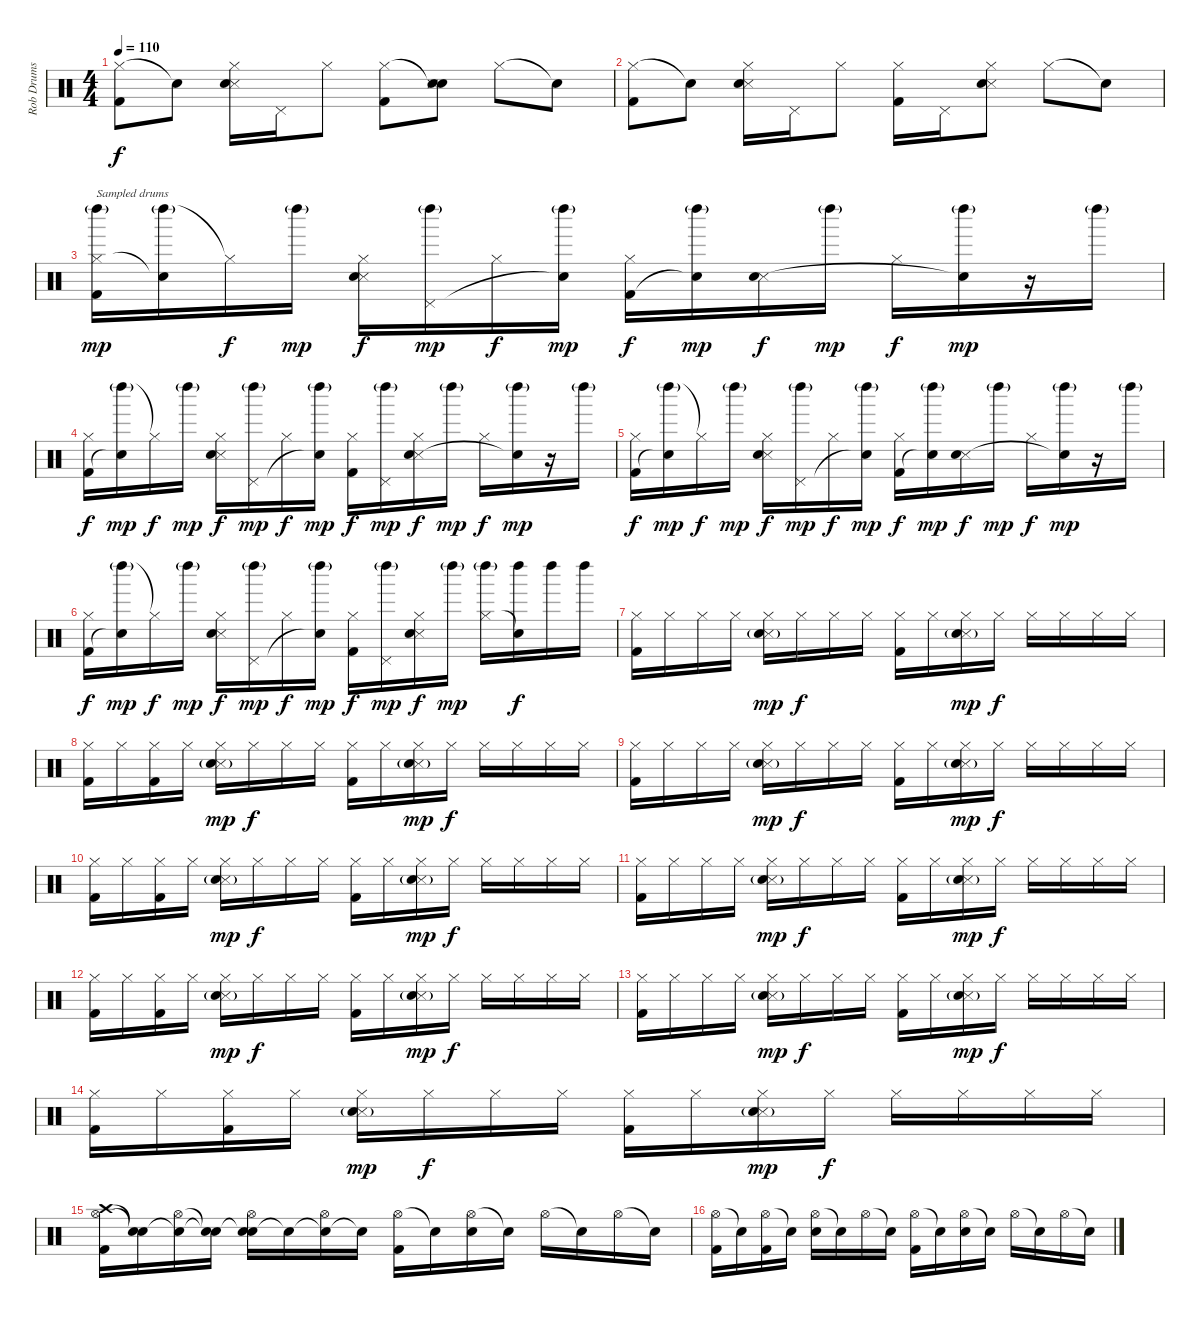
\track ("Rob Drums" "Rob Drums") {instrument percussion}
\staff {score}
\articulation defaults
\ts (4 4)
\tempo 110
\clef neutral
\ks c
("Hi-Hat (closed)" "Kick (hit) 2").8{dy f} "Snare (hit)"{t}.8 ("Hi-Hat (closed)" "Snare (side stick) 3" "Hand Clap (hit)").16 "Pedal Hi-Hat (hit)".16 "Hi-Hat (closed)".8 ("Hi-Hat (closed)" "Kick (hit) 2").8 ("Snare (hit)"{t} "Snare (side stick) 3" "Hand Clap (hit)").8 "Hi-Hat (closed)".8 "Snare (hit)"{t}.8 |
("Hi-Hat (closed)" "Kick (hit) 2").8 "Snare (hit)"{t}.8 ("Hi-Hat (closed)" "Snare (side stick) 3" "Hand Clap (hit)").16 "Pedal Hi-Hat (hit)".16 "Hi-Hat (closed)".8 ("Hi-Hat (closed)" "Kick (hit) 2").16 "Pedal Hi-Hat (hit)".16 ("Hi-Hat (closed)" "Snare (side stick) 3" "Hand Clap (hit)").8 "Hi-Hat (closed)".8 "Snare (hit)"{t}.8 |
("Left Maraca (hit)"{g} "Hi-Hat (closed)" "Kick (hit) 2").16{txt "Sampled drums" dy mp} ("Left Maraca (hit)"{g} "Snare (hit)"{t}).16 "Hi-Hat (closed)"{t}.16{dy f} "Left Maraca (hit)"{g}.16{dy mp} ("Hi-Hat (closed)" "Snare (side stick) 3" "Hand Clap (hit)").16{dy f} ("Left Maraca (hit)"{g} "Pedal Hi-Hat (hit)").16{dy mp} "Hi-Hat (closed)".16{dy f} ("Left Maraca (hit)"{g} "Snare (hit)"{t}).16{dy mp} ("Hi-Hat (closed)" "Kick (hit) 2").16{dy f} ("Left Maraca (hit)"{g} "Snare (hit)"{t}).16{dy mp} ("Snare (side stick) 3" "Hand Clap (hit)").16{dy f} "Left Maraca (hit)"{g}.16{dy mp} "Hi-Hat (closed)".16{dy f} ("Left Maraca (hit)"{g} "Snare (hit)"{t}).16{dy mp} r.16 "Left Maraca (hit)"{g}.16 |
("Hi-Hat (closed)" "Kick (hit) 2").16{dy f} ("Left Maraca (hit)"{g} "Snare (hit)"{t}).16{dy mp} "Hi-Hat (closed)"{t}.16{dy f} "Left Maraca (hit)"{g}.16{dy mp} ("Hi-Hat (closed)" "Snare (side stick) 3" "Hand Clap (hit)").16{dy f} ("Left Maraca (hit)"{g} "Pedal Hi-Hat (hit)").16{dy mp} "Hi-Hat (closed)".16{dy f} ("Left Maraca (hit)"{g} "Snare (hit)"{t}).16{dy mp} ("Hi-Hat (closed)" "Kick (hit) 2").16{dy f} ("Left Maraca (hit)"{g} "Pedal Hi-Hat (hit)").16{dy mp} ("Hi-Hat (closed)" "Snare (side stick) 3" "Hand Clap (hit)").16{dy f} "Left Maraca (hit)"{g}.16{dy mp} "Hi-Hat (closed)".16{dy f} ("Left Maraca (hit)"{g} "Snare (hit)"{t}).16{dy mp} r.16 "Left Maraca (hit)"{g}.16 |
("Hi-Hat (closed)" "Kick (hit) 2").16{dy f} ("Left Maraca (hit)"{g} "Snare (hit)"{t}).16{dy mp} "Hi-Hat (closed)"{t}.16{dy f} "Left Maraca (hit)"{g}.16{dy mp} ("Hi-Hat (closed)" "Snare (side stick) 3" "Hand Clap (hit)").16{dy f} ("Left Maraca (hit)"{g} "Pedal Hi-Hat (hit)").16{dy mp} "Hi-Hat (closed)".16{dy f} ("Left Maraca (hit)"{g} "Snare (hit)"{t}).16{dy mp} ("Hi-Hat (closed)" "Kick (hit) 2").16{dy f} ("Left Maraca (hit)"{g} "Snare (hit)"{t}).16{dy mp} ("Snare (side stick) 3" "Hand Clap (hit)").16{dy f} "Left Maraca (hit)"{g}.16{dy mp} "Hi-Hat (closed)".16{dy f} ("Left Maraca (hit)"{g} "Snare (hit)"{t}).16{dy mp} r.16 "Left Maraca (hit)"{g}.16 |
("Hi-Hat (closed)" "Kick (hit) 2").16{dy f} ("Left Maraca (hit)"{g} "Snare (hit)"{t}).16{dy mp} "Hi-Hat (closed)"{t}.16{dy f} "Left Maraca (hit)"{g}.16{dy mp} ("Hi-Hat (closed)" "Snare (side stick) 3" "Hand Clap (hit)").16{dy f} ("Left Maraca (hit)"{g} "Pedal Hi-Hat (hit)").16{dy mp} "Hi-Hat (closed)".16{dy f} ("Left Maraca (hit)"{g} "Snare (hit)"{t}).16{dy mp} ("Hi-Hat (closed)" "Kick (hit) 2").16{dy f} ("Left Maraca (hit)"{g} "Pedal Hi-Hat (hit)").16{dy mp} ("Hi-Hat (closed)" "Snare (side stick) 3" "Hand Clap (hit)").16{dy f} "Left Maraca (hit)"{g}.16{dy mp} ("Left Maraca (hit)"{g} "Hi-Hat (closed)").16 ("Left Maraca (hit)" "Snare (hit)"{t}).16{dy f} "Left Maraca (hit)".16 "Left Maraca (hit)".16 |
("Hi-Hat (closed)" "Kick (hit) 2").16 "Hi-Hat (closed)".16 "Hi-Hat (closed)".16 "Hi-Hat (closed)".16 ("Hi-Hat (closed)" "Snare (side stick) 3" "Electric Snare (hit)"{g}).16{dy mp} "Hi-Hat (closed)".16{dy f} "Hi-Hat (closed)".16 "Hi-Hat (closed)".16 ("Hi-Hat (closed)" "Kick (hit) 2").16 "Hi-Hat (closed)".16 ("Hi-Hat (closed)" "Snare (side stick) 3" "Electric Snare (hit)"{g}).16{dy mp} "Hi-Hat (closed)".16{dy f} "Hi-Hat (closed)".16 "Hi-Hat (closed)".16 "Hi-Hat (closed)".16 "Hi-Hat (closed)".16 |
("Hi-Hat (closed)" "Kick (hit) 2").16 "Hi-Hat (closed)".16 ("Hi-Hat (closed)" "Kick (hit) 2").16 "Hi-Hat (closed)".16 ("Hi-Hat (closed)" "Snare (side stick) 3" "Electric Snare (hit)"{g}).16{dy mp} "Hi-Hat (closed)".16{dy f} "Hi-Hat (closed)".16 "Hi-Hat (closed)".16 ("Hi-Hat (closed)" "Kick (hit) 2").16 "Hi-Hat (closed)".16 ("Hi-Hat (closed)" "Snare (side stick) 3" "Electric Snare (hit)"{g}).16{dy mp} "Hi-Hat (closed)".16{dy f} "Hi-Hat (closed)".16 "Hi-Hat (closed)".16 "Hi-Hat (closed)".16 "Hi-Hat (closed)".16 |
("Hi-Hat (closed)" "Kick (hit) 2").16 "Hi-Hat (closed)".16 "Hi-Hat (closed)".16 "Hi-Hat (closed)".16 ("Hi-Hat (closed)" "Snare (side stick) 3" "Electric Snare (hit)"{g}).16{dy mp} "Hi-Hat (closed)".16{dy f} "Hi-Hat (closed)".16 "Hi-Hat (closed)".16 ("Hi-Hat (closed)" "Kick (hit) 2").16 "Hi-Hat (closed)".16 ("Hi-Hat (closed)" "Snare (side stick) 3" "Electric Snare (hit)"{g}).16{dy mp} "Hi-Hat (closed)".16{dy f} "Hi-Hat (closed)".16 "Hi-Hat (closed)".16 "Hi-Hat (closed)".16 "Hi-Hat (closed)".16 |
("Hi-Hat (closed)" "Kick (hit) 2").16 "Hi-Hat (closed)".16 ("Hi-Hat (closed)" "Kick (hit) 2").16 "Hi-Hat (closed)".16 ("Hi-Hat (closed)" "Snare (side stick) 3" "Electric Snare (hit)"{g}).16{dy mp} "Hi-Hat (closed)".16{dy f} "Hi-Hat (closed)".16 "Hi-Hat (closed)".16 ("Hi-Hat (closed)" "Kick (hit) 2").16 "Hi-Hat (closed)".16 ("Hi-Hat (closed)" "Snare (side stick) 3" "Electric Snare (hit)"{g}).16{dy mp} "Hi-Hat (closed)".16{dy f} "Hi-Hat (closed)".16 "Hi-Hat (closed)".16 "Hi-Hat (closed)".16 "Hi-Hat (closed)".16 |
("Hi-Hat (closed)" "Kick (hit) 2").16 "Hi-Hat (closed)".16 "Hi-Hat (closed)".16 "Hi-Hat (closed)".16 ("Hi-Hat (closed)" "Snare (side stick) 3" "Electric Snare (hit)"{g}).16{dy mp} "Hi-Hat (closed)".16{dy f} "Hi-Hat (closed)".16 "Hi-Hat (closed)".16 ("Hi-Hat (closed)" "Kick (hit) 2").16 "Hi-Hat (closed)".16 ("Hi-Hat (closed)" "Snare (side stick) 3" "Electric Snare (hit)"{g}).16{dy mp} "Hi-Hat (closed)".16{dy f} "Hi-Hat (closed)".16 "Hi-Hat (closed)".16 "Hi-Hat (closed)".16 "Hi-Hat (closed)".16 |
("Hi-Hat (closed)" "Kick (hit) 2").16 "Hi-Hat (closed)".16 ("Hi-Hat (closed)" "Kick (hit) 2").16 "Hi-Hat (closed)".16 ("Hi-Hat (closed)" "Snare (side stick) 3" "Electric Snare (hit)"{g}).16{dy mp} "Hi-Hat (closed)".16{dy f} "Hi-Hat (closed)".16 "Hi-Hat (closed)".16 ("Hi-Hat (closed)" "Kick (hit) 2").16 "Hi-Hat (closed)".16 ("Hi-Hat (closed)" "Snare (side stick) 3" "Electric Snare (hit)"{g}).16{dy mp} "Hi-Hat (closed)".16{dy f} "Hi-Hat (closed)".16 "Hi-Hat (closed)".16 "Hi-Hat (closed)".16 "Hi-Hat (closed)".16 |
("Hi-Hat (closed)" "Kick (hit) 2").16 "Hi-Hat (closed)".16 "Hi-Hat (closed)".16 "Hi-Hat (closed)".16 ("Hi-Hat (closed)" "Snare (side stick) 3" "Electric Snare (hit)"{g}).16{dy mp} "Hi-Hat (closed)".16{dy f} "Hi-Hat (closed)".16 "Hi-Hat (closed)".16 ("Hi-Hat (closed)" "Kick (hit) 2").16 "Hi-Hat (closed)".16 ("Hi-Hat (closed)" "Snare (side stick) 3" "Electric Snare (hit)"{g}).16{dy mp} "Hi-Hat (closed)".16{dy f} "Hi-Hat (closed)".16 "Hi-Hat (closed)".16 "Hi-Hat (closed)".16 "Hi-Hat (closed)".16 |
("Hi-Hat (closed)" "Kick (hit) 2").16 "Hi-Hat (closed)".16 ("Hi-Hat (closed)" "Kick (hit) 2").16 "Hi-Hat (closed)".16 ("Hi-Hat (closed)" "Snare (side stick) 3" "Electric Snare (hit)"{g}).16{dy mp} "Hi-Hat (closed)".16{dy f} "Hi-Hat (closed)".16 "Hi-Hat (closed)".16 ("Hi-Hat (closed)" "Kick (hit) 2").16 "Hi-Hat (closed)".16 ("Hi-Hat (closed)" "Snare (side stick) 3" "Electric Snare (hit)"{g}).16{dy mp} "Hi-Hat (closed)".16{dy f} "Hi-Hat (closed)".16 "Hi-Hat (closed)".16 "Hi-Hat (closed)".16 "Hi-Hat (closed)".16 |
("Crash high (hit)" "Hi-Hat (open)" "Kick (hit) 2").16 ("Snare (hit)"{t} "Snare (hit)"{t}).16 ("Snare (hit)"{t} "Hi-Hat (open)").16 ("Snare (hit)"{t} "Snare (hit)"{t}).16 ("Snare (hit)"{t} "Hi-Hat (open)" "Electric Snare (hit)").16 "Snare (hit)"{t}.16 ("Snare (hit)"{t} "Hi-Hat (open)").16 "Snare (hit)"{t}.16 ("Hi-Hat (open)" "Kick (hit) 2").16 "Snare (hit)"{t}.16 ("Hi-Hat (open)" "Electric Snare (hit)").16 "Snare (hit)"{t}.16 "Hi-Hat (open)".16 "Snare (hit)"{t}.16 "Hi-Hat (open)".16 "Snare (hit)"{t}.16 |
("Hi-Hat (open)" "Kick (hit) 2").16 "Snare (hit)"{t}.16 ("Hi-Hat (open)" "Kick (hit) 2").16 "Snare (hit)"{t}.16 ("Hi-Hat (open)" "Electric Snare (hit)").16 "Snare (hit)"{t}.16 "Hi-Hat (open)".16 "Snare (hit)"{t}.16 ("Hi-Hat (open)" "Kick (hit) 2").16 "Snare (hit)"{t}.16 ("Hi-Hat (open)" "Electric Snare (hit)").16 "Snare (hit)"{t}.16 "Hi-Hat (open)".16 "Snare (hit)"{t}.16 "Hi-Hat (open)".16 "Snare (hit)"{t}.16
